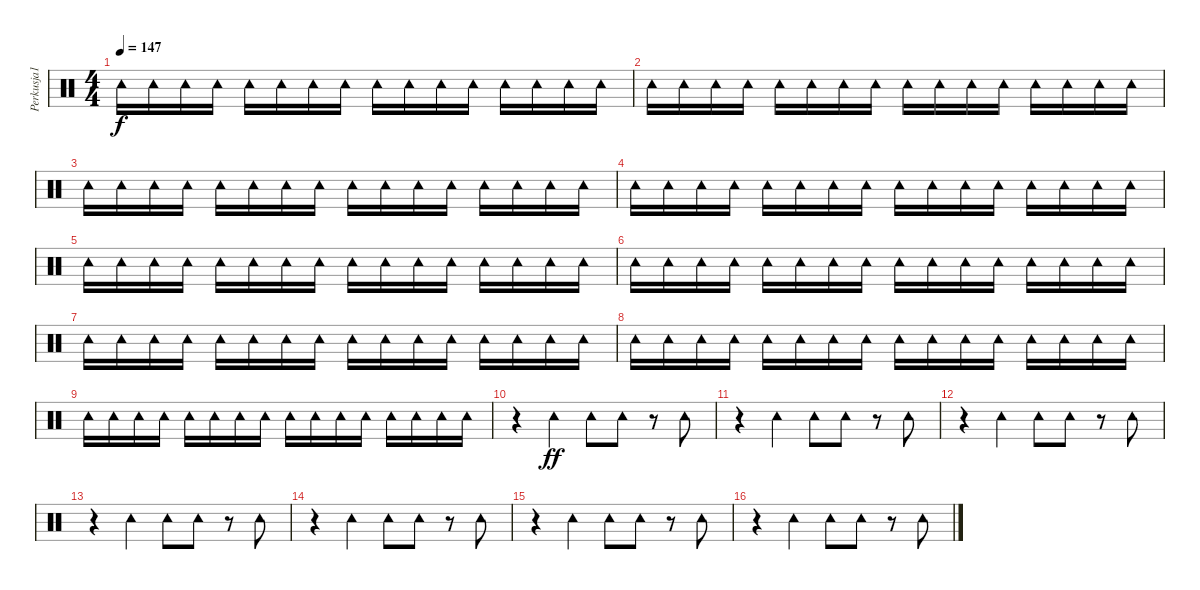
\track ("Perkusja1" "Perkusja1") {instrument percussion}
\staff {score}
\articulation defaults
\ts (4 4)
\tempo 147
\clef neutral
\ks c "Tambourine (hit)".16{dy f} "Tambourine (hit)".16 "Tambourine (hit)".16 "Tambourine (hit)".16 "Tambourine (hit)".16 "Tambourine (hit)".16 "Tambourine (hit)".16 "Tambourine (hit)".16 "Tambourine (hit)".16 "Tambourine (hit)".16 "Tambourine (hit)".16 "Tambourine (hit)".16 "Tambourine (hit)".16 "Tambourine (hit)".16 "Tambourine (hit)".16 "Tambourine (hit)".16
|
"Tambourine (hit)".16 "Tambourine (hit)".16 "Tambourine (hit)".16 "Tambourine (hit)".16 "Tambourine (hit)".16 "Tambourine (hit)".16 "Tambourine (hit)".16 "Tambourine (hit)".16 "Tambourine (hit)".16 "Tambourine (hit)".16 "Tambourine (hit)".16 "Tambourine (hit)".16 "Tambourine (hit)".16 "Tambourine (hit)".16 "Tambourine (hit)".16 "Tambourine (hit)".16 |
"Tambourine (hit)".16 "Tambourine (hit)".16 "Tambourine (hit)".16 "Tambourine (hit)".16 "Tambourine (hit)".16 "Tambourine (hit)".16 "Tambourine (hit)".16 "Tambourine (hit)".16 "Tambourine (hit)".16 "Tambourine (hit)".16 "Tambourine (hit)".16 "Tambourine (hit)".16 "Tambourine (hit)".16 "Tambourine (hit)".16 "Tambourine (hit)".16 "Tambourine (hit)".16 |
"Tambourine (hit)".16 "Tambourine (hit)".16 "Tambourine (hit)".16 "Tambourine (hit)".16 "Tambourine (hit)".16 "Tambourine (hit)".16 "Tambourine (hit)".16 "Tambourine (hit)".16 "Tambourine (hit)".16 "Tambourine (hit)".16 "Tambourine (hit)".16 "Tambourine (hit)".16 "Tambourine (hit)".16 "Tambourine (hit)".16 "Tambourine (hit)".16 "Tambourine (hit)".16 |
"Tambourine (hit)".16 "Tambourine (hit)".16 "Tambourine (hit)".16 "Tambourine (hit)".16 "Tambourine (hit)".16 "Tambourine (hit)".16 "Tambourine (hit)".16 "Tambourine (hit)".16 "Tambourine (hit)".16 "Tambourine (hit)".16 "Tambourine (hit)".16 "Tambourine (hit)".16 "Tambourine (hit)".16 "Tambourine (hit)".16 "Tambourine (hit)".16 "Tambourine (hit)".16 |
"Tambourine (hit)".16 "Tambourine (hit)".16 "Tambourine (hit)".16 "Tambourine (hit)".16 "Tambourine (hit)".16 "Tambourine (hit)".16 "Tambourine (hit)".16 "Tambourine (hit)".16 "Tambourine (hit)".16 "Tambourine (hit)".16 "Tambourine (hit)".16 "Tambourine (hit)".16 "Tambourine (hit)".16 "Tambourine (hit)".16 "Tambourine (hit)".16 "Tambourine (hit)".16 |
"Tambourine (hit)".16 "Tambourine (hit)".16 "Tambourine (hit)".16 "Tambourine (hit)".16 "Tambourine (hit)".16 "Tambourine (hit)".16 "Tambourine (hit)".16 "Tambourine (hit)".16 "Tambourine (hit)".16 "Tambourine (hit)".16 "Tambourine (hit)".16 "Tambourine (hit)".16 "Tambourine (hit)".16 "Tambourine (hit)".16 "Tambourine (hit)".16 "Tambourine (hit)".16 |
"Tambourine (hit)".16 "Tambourine (hit)".16 "Tambourine (hit)".16 "Tambourine (hit)".16 "Tambourine (hit)".16 "Tambourine (hit)".16 "Tambourine (hit)".16 "Tambourine (hit)".16 "Tambourine (hit)".16 "Tambourine (hit)".16 "Tambourine (hit)".16 "Tambourine (hit)".16 "Tambourine (hit)".16 "Tambourine (hit)".16 "Tambourine (hit)".16 "Tambourine (hit)".16 |
"Tambourine (hit)".16 "Tambourine (hit)".16 "Tambourine (hit)".16 "Tambourine (hit)".16 "Tambourine (hit)".16 "Tambourine (hit)".16 "Tambourine (hit)".16 "Tambourine (hit)".16 "Tambourine (hit)".16 "Tambourine (hit)".16 "Tambourine (hit)".16 "Tambourine (hit)".16 "Tambourine (hit)".16 "Tambourine (hit)".16 "Tambourine (hit)".16 "Tambourine (hit)".16 |
r.4 "Tambourine (hit)".4{dy ff} "Tambourine (hit)".8 "Tambourine (hit)".8 r.8 "Tambourine (hit)".8 |
r.4 "Tambourine (hit)".4 "Tambourine (hit)".8 "Tambourine (hit)".8 r.8 "Tambourine (hit)".8 |
r.4 "Tambourine (hit)".4 "Tambourine (hit)".8 "Tambourine (hit)".8 r.8 "Tambourine (hit)".8 |
r.4 "Tambourine (hit)".4 "Tambourine (hit)".8 "Tambourine (hit)".8 r.8 "Tambourine (hit)".8 |
r.4 "Tambourine (hit)".4 "Tambourine (hit)".8 "Tambourine (hit)".8 r.8 "Tambourine (hit)".8 |
r.4 "Tambourine (hit)".4 "Tambourine (hit)".8 "Tambourine (hit)".8 r.8 "Tambourine (hit)".8 |
r.4 "Tambourine (hit)".4 "Tambourine (hit)".8 "Tambourine (hit)".8 r.8 "Tambourine (hit)".8
